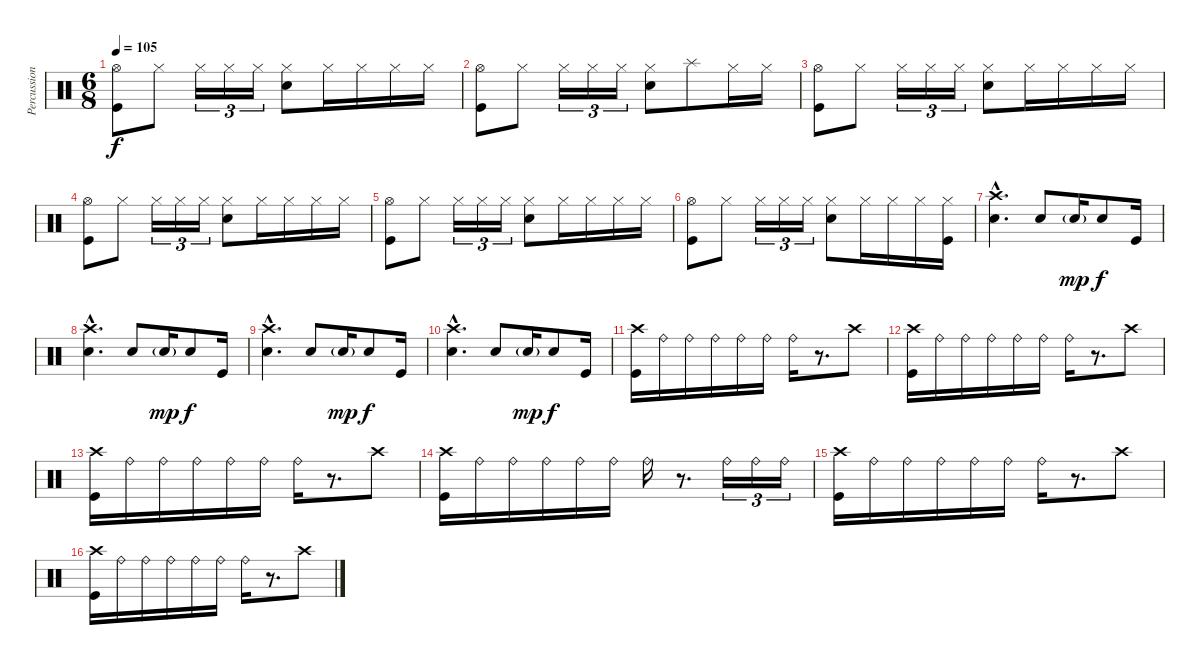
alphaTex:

\track ("Percussion" "Percussion") {instrument percussion}
\staff {score}
\articulation defaults
\ts (6 8)
\tempo 105
\clef neutral
\ks c
("Hi-Hat (open)" "Kick (hit)").8{dy f} "Hi-Hat (closed)".8 "Hi-Hat (closed)".16{tu (3 2)} "Hi-Hat (closed)".16{tu (3 2)} "Hi-Hat (closed)".16{tu (3 2)} ("Hi-Hat (closed)" "Electric Snare (hit)").8 "Hi-Hat (closed)".16 "Hi-Hat (closed)".16 "Hi-Hat (closed)".16 "Hi-Hat (closed)".16 |
("Hi-Hat (open)" "Kick (hit)").8 "Hi-Hat (closed)".8 "Hi-Hat (closed)".16{tu (3 2)} "Hi-Hat (closed)".16{tu (3 2)} "Hi-Hat (closed)".16{tu (3 2)} ("Hi-Hat (closed)" "Electric Snare (hit)").8 "Splash (hit)".8 "Hi-Hat (closed)".16 "Hi-Hat (closed)".16 |
("Hi-Hat (open)" "Kick (hit)").8 "Hi-Hat (closed)".8 "Hi-Hat (closed)".16{tu (3 2)} "Hi-Hat (closed)".16{tu (3 2)} "Hi-Hat (closed)".16{tu (3 2)} ("Hi-Hat (closed)" "Electric Snare (hit)").8 "Hi-Hat (closed)".16 "Hi-Hat (closed)".16 "Hi-Hat (closed)".16 "Hi-Hat (closed)".16 |
("Hi-Hat (open)" "Kick (hit)").8 "Hi-Hat (closed)".8 "Hi-Hat (closed)".16{tu (3 2)} "Hi-Hat (closed)".16{tu (3 2)} "Hi-Hat (closed)".16{tu (3 2)} ("Hi-Hat (closed)" "Electric Snare (hit)").8 "Hi-Hat (closed)".16 "Hi-Hat (closed)".16 "Hi-Hat (closed)".16 "Hi-Hat (closed)".16 |
("Hi-Hat (open)" "Kick (hit)").8 "Hi-Hat (closed)".8 "Hi-Hat (closed)".16{tu (3 2)} "Hi-Hat (closed)".16{tu (3 2)} "Hi-Hat (closed)".16{tu (3 2)} ("Hi-Hat (closed)" "Electric Snare (hit)").8 "Hi-Hat (closed)".16 "Hi-Hat (closed)".16 "Hi-Hat (closed)".16 "Hi-Hat (closed)".16 |
("Hi-Hat (open)" "Kick (hit)").8 "Hi-Hat (closed)".8 "Hi-Hat (closed)".16{tu (3 2)} "Hi-Hat (closed)".16{tu (3 2)} "Hi-Hat (closed)".16{tu (3 2)} ("Hi-Hat (closed)" "Electric Snare (hit)").8 "Hi-Hat (closed)".16 "Hi-Hat (closed)".16 "Hi-Hat (closed)".16 ("Hi-Hat (closed)" "Kick (hit)").16 |
("Crash high (hit)"{hac} "Electric Snare (hit)"{hac}).4{d} "Electric Snare (hit)".8 "Electric Snare (hit)"{g}.16{dy mp} "Electric Snare (hit)".8{dy f} "Kick (hit)".16 |
("Crash high (hit)"{hac} "Electric Snare (hit)"{hac}).4{d} "Electric Snare (hit)".8 "Electric Snare (hit)"{g}.16{dy mp} "Electric Snare (hit)".8{dy f} "Kick (hit)".16 |
("Crash high (hit)"{hac} "Electric Snare (hit)"{hac}).4{d} "Electric Snare (hit)".8 "Electric Snare (hit)"{g}.16{dy mp} "Electric Snare (hit)".8{dy f} "Kick (hit)".16 |
("Crash high (hit)"{hac} "Electric Snare (hit)"{hac}).4{d} "Electric Snare (hit)".8 "Electric Snare (hit)"{g}.16{dy mp} "Electric Snare (hit)".8{dy f} "Kick (hit)".16 |
("Crash high (hit)" "Kick (hit)").16 "Ride (bell)".16 "Ride (bell)".16 "Ride (bell)".16 "Ride (bell)".16 "Ride (bell)".16 "Ride (bell)".16 r.8{d} "Crash high (hit)".8 |
("Crash high (hit)" "Kick (hit)").16 "Ride (bell)".16 "Ride (bell)".16 "Ride (bell)".16 "Ride (bell)".16 "Ride (bell)".16 "Ride (bell)".16 r.8{d} "Crash high (hit)".8 |
("Crash high (hit)" "Kick (hit)").16 "Ride (bell)".16 "Ride (bell)".16 "Ride (bell)".16 "Ride (bell)".16 "Ride (bell)".16 "Ride (bell)".16 r.8{d} "Crash high (hit)".8 |
("Crash high (hit)" "Kick (hit)").16 "Ride (bell)".16 "Ride (bell)".16 "Ride (bell)".16 "Ride (bell)".16 "Ride (bell)".16 "Ride (bell)".16 r.8{d} "Ride (bell)".16{tu (3 2)} "Ride (bell)".16{tu (3 2)} "Ride (bell)".16{tu (3 2)} |
("Crash high (hit)" "Kick (hit)").16 "Ride (bell)".16 "Ride (bell)".16 "Ride (bell)".16 "Ride (bell)".16 "Ride (bell)".16 "Ride (bell)".16 r.8{d} "Crash high (hit)".8 |
("Crash high (hit)" "Kick (hit)").16 "Ride (bell)".16 "Ride (bell)".16 "Ride (bell)".16 "Ride (bell)".16 "Ride (bell)".16 "Ride (bell)".16 r.8{d} "Crash high (hit)".8
